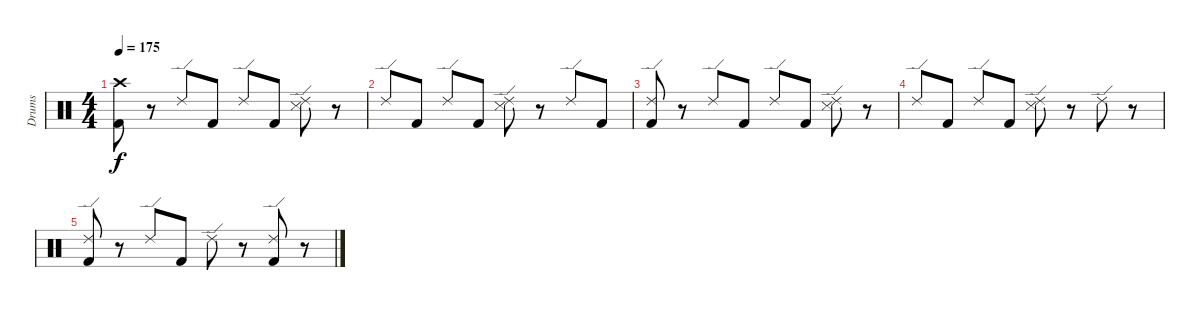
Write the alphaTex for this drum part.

\track ("Drums" "Drums") {instrument percussion}
\staff {score}
\articulation defaults
\ts (4 4)
\tempo 175
\clef neutral
\ks c
("Crash high (hit)" "Kick (hit) 2").8{dy f} r.8 "Ride (edge) 2".8 "Kick (hit) 2".8 "Ride (edge) 2".8 "Kick (hit) 2".8 ("Ride (edge) 2" "Snare (side stick) 3").8 r.8 |
"Ride (edge) 2".8 "Kick (hit) 2".8 "Ride (edge) 2".8 "Kick (hit) 2".8 ("Ride (edge) 2" "Snare (side stick) 3").8 r.8 "Ride (edge) 2".8 "Kick (hit) 2".8 |
("Ride (edge) 2" "Kick (hit) 2").8 r.8 "Ride (edge) 2".8 "Kick (hit) 2".8 "Ride (edge) 2".8 "Kick (hit) 2".8 ("Ride (edge) 2" "Snare (side stick) 3").8 r.8 |
"Ride (edge) 2".8 "Kick (hit) 2".8 "Ride (edge) 2".8 "Kick (hit) 2".8 ("Ride (edge) 2" "Snare (side stick) 3").8 r.8 "Ride (edge) 2".8 r.8 |
("Ride (edge) 2" "Kick (hit) 2").8 r.8 "Ride (edge) 2".8 "Kick (hit) 2".8 "Ride (edge) 2".8 r.8 ("Ride (edge) 2" "Kick (hit) 2").8 r.8
